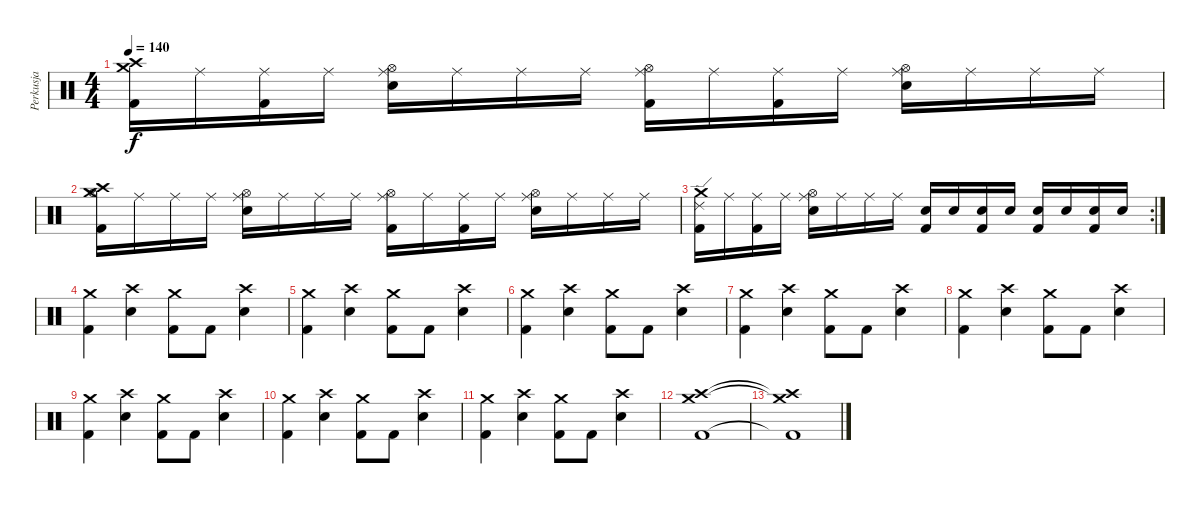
\track ("Perkusja" "Perkusja") {instrument percussion}
\staff {score}
\articulation defaults
\ts (4 4)
\tempo 140
\clef neutral
\ks c
("Crash medium (hit)" "Crash high (hit)" "Kick (hit) 2").16{dy f} "Ride (middle)".16 ("Ride (middle)" "Kick (hit) 2").16 "Ride (middle)".16 ("Ride (middle)" "Hi-Hat (open)" "Snare (hit) 2").16 "Ride (middle)".16 "Ride (middle)".16 "Ride (middle)".16 ("Ride (middle)" "Hi-Hat (open)" "Kick (hit) 2").16 "Ride (middle)".16 ("Ride (middle)" "Kick (hit) 2").16 "Ride (middle)".16 ("Ride (middle)" "Hi-Hat (open)" "Snare (hit) 2").16 "Ride (middle)".16 "Ride (middle)".16 "Ride (middle)".16 |
("Crash medium (hit)" "Crash high (hit)" "Hi-Hat (open)" "Kick (hit) 2").16 "Ride (middle)".16 "Ride (middle)".16 "Ride (middle)".16 ("Ride (middle)" "Hi-Hat (open)" "Snare (hit) 2").16 "Ride (middle)".16 "Ride (middle)".16 "Ride (middle)".16 ("Ride (middle)" "Hi-Hat (open)" "Kick (hit) 2").16 "Ride (middle)".16 ("Ride (middle)" "Kick (hit) 2").16 "Ride (middle)".16 ("Ride (middle)" "Hi-Hat (open)" "Snare (hit) 2").16 "Ride (middle)".16 "Ride (middle)".16 "Ride (middle)".16 |
\rc 2
("Crash medium (hit)" "Ride (edge) 2" "Kick (hit) 2").16 "Ride (middle)".16 ("Ride (middle)" "Kick (hit) 2").16 "Ride (middle)".16 ("Ride (middle)" "Hi-Hat (open)" "Snare (hit) 2").16 "Ride (middle)".16 "Ride (middle)".16 "Ride (middle)".16 ("Snare (hit) 2" "Kick (hit) 2").16 "Snare (hit) 2".16 ("Snare (hit) 2" "Kick (hit) 2").16 "Snare (hit) 2".16 ("Snare (hit) 2" "Kick (hit) 2").16 "Snare (hit) 2".16 ("Snare (hit) 2" "Kick (hit) 2").16 "Snare (hit) 2".16 |
("Crash medium (hit)" "Kick (hit) 2").4 ("Crash high (hit)" "Snare (hit) 2").4 ("Crash medium (hit)" "Kick (hit) 2").8 "Kick (hit) 2".8 ("Crash high (hit)" "Snare (hit) 2").4 |
("Crash medium (hit)" "Kick (hit) 2").4 ("Crash high (hit)" "Snare (hit) 2").4 ("Crash medium (hit)" "Kick (hit) 2").8 "Kick (hit) 2".8 ("Crash high (hit)" "Snare (hit) 2").4 |
("Crash medium (hit)" "Kick (hit) 2").4 ("Crash high (hit)" "Snare (hit) 2").4 ("Crash medium (hit)" "Kick (hit) 2").8 "Kick (hit) 2".8 ("Crash high (hit)" "Snare (hit) 2").4 |
("Crash medium (hit)" "Kick (hit) 2").4 ("Crash high (hit)" "Snare (hit) 2").4 ("Crash medium (hit)" "Kick (hit) 2").8 "Kick (hit) 2".8 ("Crash high (hit)" "Snare (hit) 2").4 |
("Crash medium (hit)" "Kick (hit) 2").4 ("Crash high (hit)" "Snare (hit) 2").4 ("Crash medium (hit)" "Kick (hit) 2").8 "Kick (hit) 2".8 ("Crash high (hit)" "Snare (hit) 2").4 |
("Crash medium (hit)" "Kick (hit) 2").4 ("Crash high (hit)" "Snare (hit) 2").4 ("Crash medium (hit)" "Kick (hit) 2").8 "Kick (hit) 2".8 ("Crash high (hit)" "Snare (hit) 2").4 |
("Crash medium (hit)" "Kick (hit) 2").4 ("Crash high (hit)" "Snare (hit) 2").4 ("Crash medium (hit)" "Kick (hit) 2").8 "Kick (hit) 2".8 ("Crash high (hit)" "Snare (hit) 2").4 |
("Crash medium (hit)" "Kick (hit) 2").4 ("Crash high (hit)" "Snare (hit) 2").4 ("Crash medium (hit)" "Kick (hit) 2").8 "Kick (hit) 2".8 ("Crash high (hit)" "Snare (hit) 2").4 |
("Crash medium (hit)" "Crash high (hit)" "Kick (hit) 2").1 |
("Crash medium (hit)"{t} "Crash high (hit)"{t} "Kick (hit) 2"{t}).1
